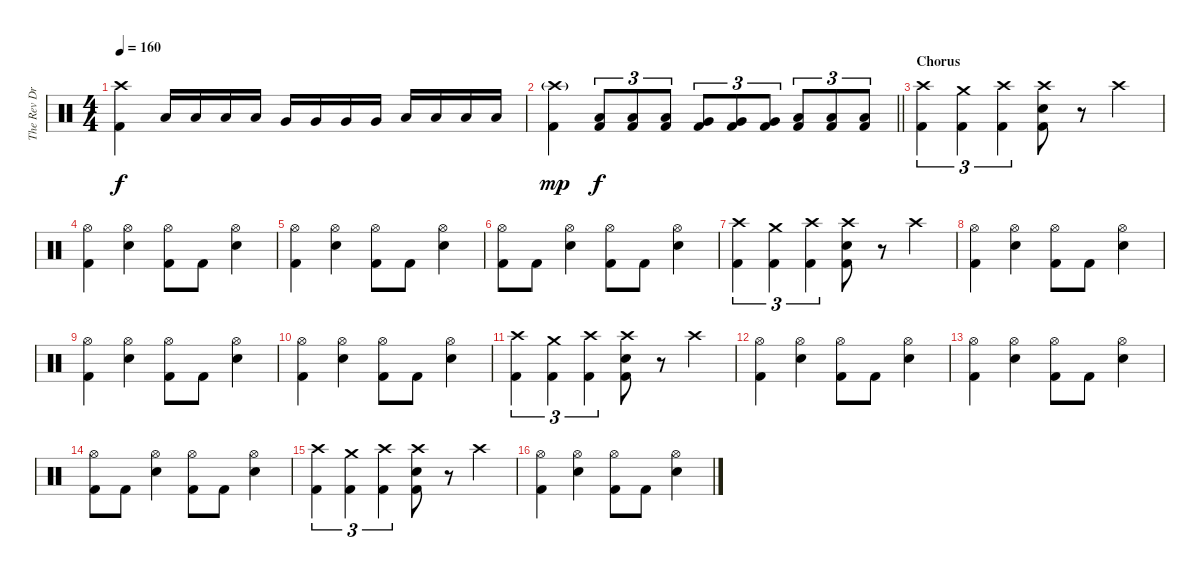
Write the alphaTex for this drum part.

\track ("The Rev Drum" "The Rev Dr") {instrument percussion}
\staff {score}
\articulation defaults
\ts (4 4)
\tempo 160
\clef neutral
\ks c
("Crash high (hit)" "Kick (hit) 2").4{dy f} "Low Tom (hit)".16 "Low Tom (hit)".16 "Low Tom (hit)".16 "Low Tom (hit)".16 "Very Low Tom (hit)".16 "Very Low Tom (hit)".16 "Very Low Tom (hit)".16 "Very Low Tom (hit)".16 "Low Floor Tom (hit)".16 "Low Floor Tom (hit)".16 "Low Floor Tom (hit)".16 "Low Floor Tom (hit)".16 |
\barLineRight lightlight
("Crash high (hit)"{g} "Kick (hit) 2").4{dy mp} ("Low Tom (hit)" "Kick (hit) 2").8{tu (3 2) dy f} ("Low Tom (hit)" "Kick (hit) 2").8{tu (3 2)} ("Low Tom (hit)" "Kick (hit) 2").8{tu (3 2)} ("Very Low Tom (hit)" "Kick (hit) 2").8{tu (3 2)} ("Very Low Tom (hit)" "Kick (hit) 2").8{tu (3 2)} ("Very Low Tom (hit)" "Kick (hit) 2").8{tu (3 2)} ("Low Floor Tom (hit)" "Kick (hit) 2").8{tu (3 2)} ("Low Floor Tom (hit)" "Kick (hit) 2").8{tu (3 2)} ("Low Floor Tom (hit)" "Kick (hit) 2").8{tu (3 2)} |
\section ("" "Chorus")
("Crash high (hit)" "Kick (hit) 2").4{tu (3 2)} ("Crash medium (hit)" "Kick (hit) 2").4{tu (3 2)} ("Crash high (hit)" "Kick (hit) 2").4{tu (3 2)} ("Crash high (hit)" "Electric Snare (hit)" "Kick (hit) 2").8 r.8 "Crash high (hit)".4 |
("Hi-Hat (open)" "Kick (hit) 2").4 ("Hi-Hat (open)" "Electric Snare (hit)").4 ("Hi-Hat (open)" "Kick (hit) 2").8 "Kick (hit) 2".8 ("Hi-Hat (open)" "Electric Snare (hit)").4 |
("Hi-Hat (open)" "Kick (hit) 2").4 ("Hi-Hat (open)" "Electric Snare (hit)").4 ("Hi-Hat (open)" "Kick (hit) 2").8 "Kick (hit) 2".8 ("Hi-Hat (open)" "Electric Snare (hit)").4 |
("Hi-Hat (open)" "Kick (hit) 2").8 "Kick (hit) 2".8 ("Hi-Hat (open)" "Electric Snare (hit)").4 ("Hi-Hat (open)" "Kick (hit) 2").8 "Kick (hit) 2".8 ("Hi-Hat (open)" "Electric Snare (hit)").4 |
("Crash high (hit)" "Kick (hit) 2").4{tu (3 2)} ("Crash medium (hit)" "Kick (hit) 2").4{tu (3 2)} ("Crash high (hit)" "Kick (hit) 2").4{tu (3 2)} ("Crash high (hit)" "Electric Snare (hit)" "Kick (hit) 2").8 r.8 "Crash high (hit)".4 |
("Hi-Hat (open)" "Kick (hit) 2").4 ("Hi-Hat (open)" "Electric Snare (hit)").4 ("Hi-Hat (open)" "Kick (hit) 2").8 "Kick (hit) 2".8 ("Hi-Hat (open)" "Electric Snare (hit)").4 |
("Hi-Hat (open)" "Kick (hit) 2").4 ("Hi-Hat (open)" "Electric Snare (hit)").4 ("Hi-Hat (open)" "Kick (hit) 2").8 "Kick (hit) 2".8 ("Hi-Hat (open)" "Electric Snare (hit)").4 |
("Hi-Hat (open)" "Kick (hit) 2").4 ("Hi-Hat (open)" "Electric Snare (hit)").4 ("Hi-Hat (open)" "Kick (hit) 2").8 "Kick (hit) 2".8 ("Hi-Hat (open)" "Electric Snare (hit)").4 |
("Crash high (hit)" "Kick (hit) 2").4{tu (3 2)} ("Crash medium (hit)" "Kick (hit) 2").4{tu (3 2)} ("Crash high (hit)" "Kick (hit) 2").4{tu (3 2)} ("Crash high (hit)" "Electric Snare (hit)" "Kick (hit) 2").8 r.8 "Crash high (hit)".4 |
("Hi-Hat (open)" "Kick (hit) 2").4 ("Hi-Hat (open)" "Electric Snare (hit)").4 ("Hi-Hat (open)" "Kick (hit) 2").8 "Kick (hit) 2".8 ("Hi-Hat (open)" "Electric Snare (hit)").4 |
("Hi-Hat (open)" "Kick (hit) 2").4 ("Hi-Hat (open)" "Electric Snare (hit)").4 ("Hi-Hat (open)" "Kick (hit) 2").8 "Kick (hit) 2".8 ("Hi-Hat (open)" "Electric Snare (hit)").4 |
("Hi-Hat (open)" "Kick (hit) 2").8 "Kick (hit) 2".8 ("Hi-Hat (open)" "Electric Snare (hit)").4 ("Hi-Hat (open)" "Kick (hit) 2").8 "Kick (hit) 2".8 ("Hi-Hat (open)" "Electric Snare (hit)").4 |
("Crash high (hit)" "Kick (hit) 2").4{tu (3 2)} ("Crash medium (hit)" "Kick (hit) 2").4{tu (3 2)} ("Crash high (hit)" "Kick (hit) 2").4{tu (3 2)} ("Crash high (hit)" "Electric Snare (hit)" "Kick (hit) 2").8 r.8 "Crash high (hit)".4 |
("Hi-Hat (open)" "Kick (hit) 2").4 ("Hi-Hat (open)" "Electric Snare (hit)").4 ("Hi-Hat (open)" "Kick (hit) 2").8 "Kick (hit) 2".8 ("Hi-Hat (open)" "Electric Snare (hit)").4
